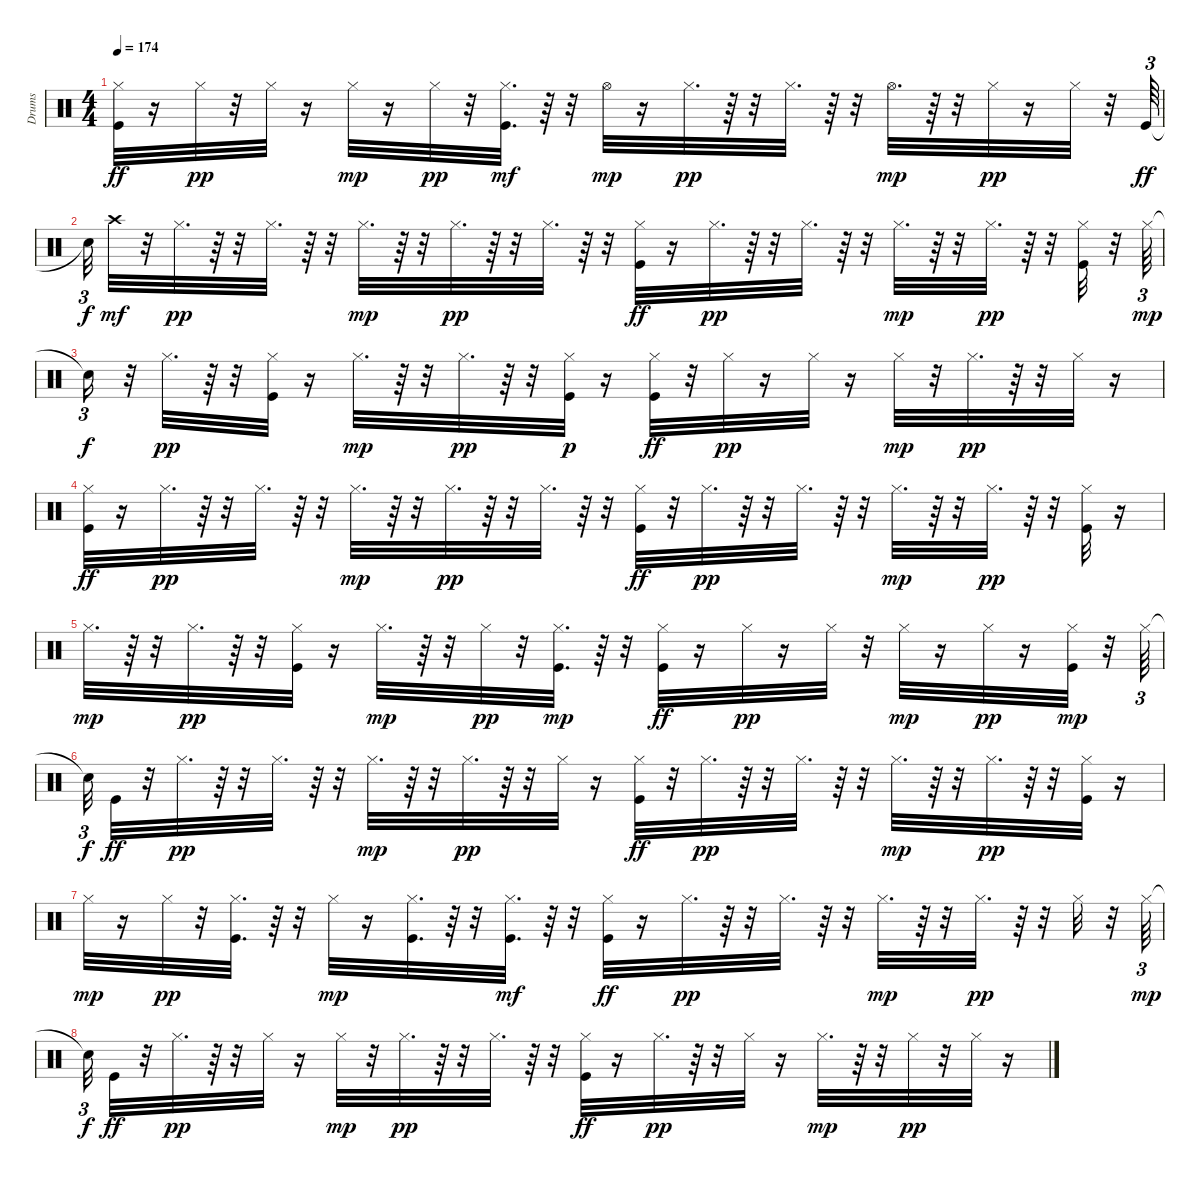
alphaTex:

\track ("Drums" "Drums") {instrument percussion}
\staff {score}
\articulation defaults
\ts (4 4)
\tempo 174
\clef neutral
\ks c
("Hi-Hat (closed)" "Kick (hit)").32{dy ff} r.16 "Hi-Hat (closed)".32{dy pp} r.32 "Hi-Hat (closed)".32 r.16 "Hi-Hat (closed)".32{dy mp} r.16 "Hi-Hat (closed)".32{dy pp} r.32 ("Hi-Hat (closed)" "Kick (hit)").32{d dy mf} r.64 r.32 "Hi-Hat (open)".32{dy mp} r.16 "Hi-Hat (closed)".32{d dy pp} r.64 r.32 "Hi-Hat (closed)".32{d} r.64 r.32 "Hi-Hat (open)".32{d dy mp} r.64 r.32 "Hi-Hat (closed)".32{dy pp} r.16 "Hi-Hat (closed)".32 r.32 "Kick (hit)".64{tu (3 2) dy ff} |
"Snare (hit)"{t}.32{tu (3 2) dy f} "Crash high (hit)".32{dy mf} r.32 "Hi-Hat (closed)".32{d dy pp} r.64 r.32 "Hi-Hat (closed)".32{d} r.64 r.32 "Hi-Hat (closed)".32{d dy mp} r.64 r.32 "Hi-Hat (closed)".32{d dy pp} r.64 r.32 "Hi-Hat (closed)".32{d} r.64 r.32 ("Hi-Hat (closed)" "Kick (hit)").32{dy ff} r.16 "Hi-Hat (closed)".32{d dy pp} r.64 r.32 "Hi-Hat (closed)".32{d} r.64 r.32 "Hi-Hat (closed)".32{d dy mp} r.64 r.32 "Hi-Hat (closed)".32{d dy pp} r.64 r.32 ("Hi-Hat (closed)" "Kick (hit)").32 r.32 "Hi-Hat (closed)".64{tu (3 2) dy mp} |
"Snare (hit)"{t}.16{tu (3 2) dy f} r.32 "Hi-Hat (closed)".32{d dy pp} r.64 r.32 ("Hi-Hat (closed)" "Kick (hit)").32 r.16 "Hi-Hat (closed)".32{d dy mp} r.64 r.32 "Hi-Hat (closed)".32{d dy pp} r.64 r.32 ("Hi-Hat (closed)" "Kick (hit)").32{dy p} r.16 ("Hi-Hat (closed)" "Kick (hit)").32{dy ff} r.32 "Hi-Hat (closed)".32{dy pp} r.16 "Hi-Hat (closed)".32 r.16 "Hi-Hat (closed)".32{dy mp} r.32 "Hi-Hat (closed)".32{d dy pp} r.64 r.32 "Hi-Hat (closed)".32 r.16 |
("Hi-Hat (closed)" "Kick (hit)").32{dy ff} r.16 "Hi-Hat (closed)".32{d dy pp} r.64 r.32 "Hi-Hat (closed)".32{d} r.64 r.32 "Hi-Hat (closed)".32{d dy mp} r.64 r.32 "Hi-Hat (closed)".32{d dy pp} r.64 r.32 "Hi-Hat (closed)".32{d} r.64 r.32 ("Hi-Hat (closed)" "Kick (hit)").32{dy ff} r.32 "Hi-Hat (closed)".32{d dy pp} r.64 r.32 "Hi-Hat (closed)".32{d} r.64 r.32 "Hi-Hat (closed)".32{d dy mp} r.64 r.32 "Hi-Hat (closed)".32{d dy pp} r.64 r.32 ("Hi-Hat (closed)" "Kick (hit)").32 r.16 |
"Hi-Hat (closed)".32{d dy mp} r.64 r.32 "Hi-Hat (closed)".32{d dy pp} r.64 r.32 ("Hi-Hat (closed)" "Kick (hit)").32 r.16 "Hi-Hat (closed)".32{d dy mp} r.64 r.32 "Hi-Hat (closed)".32{dy pp} r.32 ("Hi-Hat (closed)" "Kick (hit)").32{d dy mp} r.64 r.32 ("Hi-Hat (closed)" "Kick (hit)").32{dy ff} r.16 "Hi-Hat (closed)".32{dy pp} r.16 "Hi-Hat (closed)".32 r.32 "Hi-Hat (closed)".32{dy mp} r.16 "Hi-Hat (closed)".32{dy pp} r.16 ("Hi-Hat (closed)" "Kick (hit)").32{dy mp} r.32 "Hi-Hat (closed)".64{tu (3 2)} |
"Snare (hit)"{t}.32{tu (3 2) dy f} "Kick (hit)".32{dy ff} r.32 "Hi-Hat (closed)".32{d dy pp} r.64 r.32 "Hi-Hat (closed)".32{d} r.64 r.32 "Hi-Hat (closed)".32{d dy mp} r.64 r.32 "Hi-Hat (closed)".32{d dy pp} r.64 r.32 "Hi-Hat (closed)".32 r.16 ("Hi-Hat (closed)" "Kick (hit)").32{dy ff} r.32 "Hi-Hat (closed)".32{d dy pp} r.64 r.32 "Hi-Hat (closed)".32{d} r.64 r.32 "Hi-Hat (closed)".32{d dy mp} r.64 r.32 "Hi-Hat (closed)".32{d dy pp} r.64 r.32 ("Hi-Hat (closed)" "Kick (hit)").32 r.16 |
"Hi-Hat (closed)".32{dy mp} r.16 "Hi-Hat (closed)".32{dy pp} r.32 ("Hi-Hat (closed)" "Kick (hit)").32{d} r.64 r.32 "Hi-Hat (closed)".32{dy mp} r.16 ("Hi-Hat (closed)" "Kick (hit)").32{d} r.64 r.32 ("Hi-Hat (closed)" "Kick (hit)").32{d dy mf} r.64 r.32 ("Hi-Hat (closed)" "Kick (hit)").32{dy ff} r.16 "Hi-Hat (closed)".32{d dy pp} r.64 r.32 "Hi-Hat (closed)".32{d} r.64 r.32 "Hi-Hat (closed)".32{d dy mp} r.64 r.32 "Hi-Hat (closed)".32{d dy pp} r.64 r.32 "Hi-Hat (closed)".32 r.32 "Hi-Hat (closed)".64{tu (3 2) dy mp} |
"Snare (hit)"{t}.32{tu (3 2) dy f} "Kick (hit)".32{dy ff} r.32 "Hi-Hat (closed)".32{d dy pp} r.64 r.32 "Hi-Hat (closed)".32 r.16 "Hi-Hat (closed)".32{dy mp} r.32 "Hi-Hat (closed)".32{d dy pp} r.64 r.32 "Hi-Hat (closed)".32{d} r.64 r.32 ("Hi-Hat (closed)" "Kick (hit)").32{dy ff} r.16 "Hi-Hat (closed)".32{d dy pp} r.64 r.32 "Hi-Hat (closed)".32 r.16 "Hi-Hat (closed)".32{d dy mp} r.64 r.32 "Hi-Hat (closed)".32{dy pp} r.32 "Hi-Hat (closed)".32 r.16
